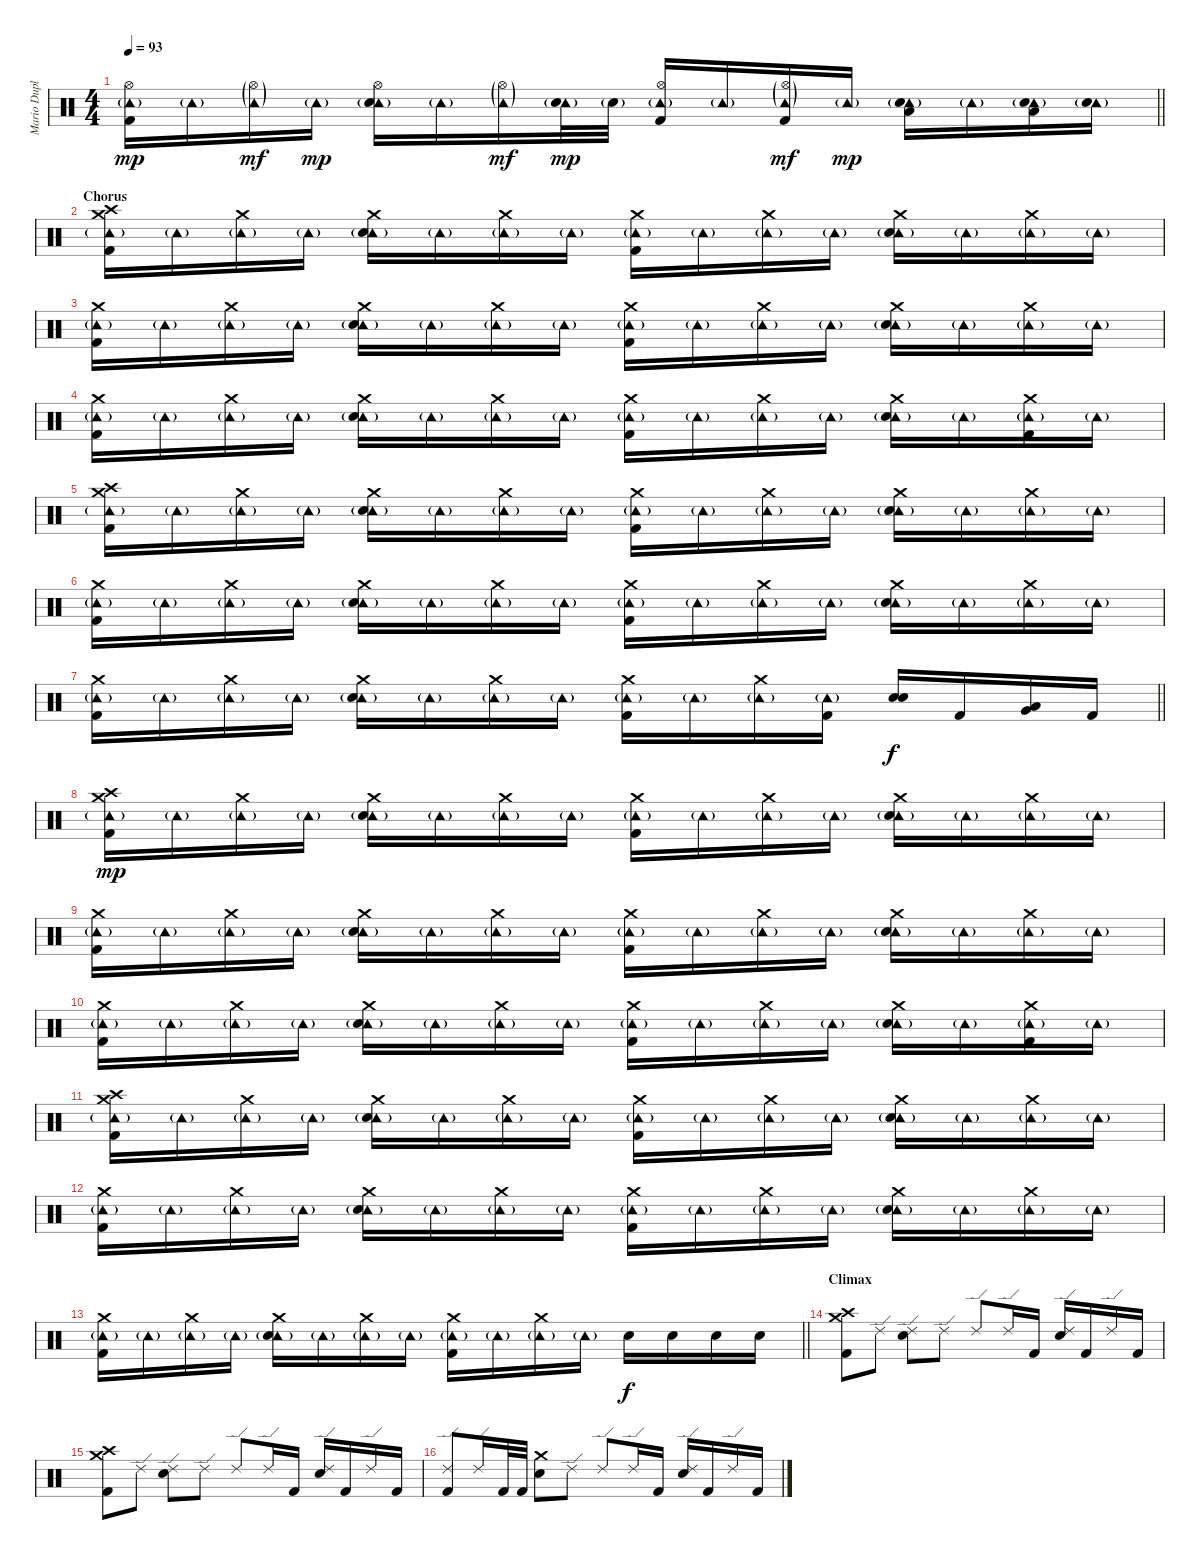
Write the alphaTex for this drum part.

\track ("Mario Duplantier" "Mario Dupl") {instrument percussion}
\staff {score}
\articulation defaults
\ts (4 4)
\tempo 93
\clef neutral
\barLineRight lightlight
\ks c
("Tambourine (hit)"{g} "Hi-Hat (open)" "Kick (hit) 2").16{dy mp} "Tambourine (hit)"{g}.16 ("Tambourine (hit)"{g} "Hi-Hat (open)"{g}).16{dy mf} "Tambourine (hit)"{g}.16{dy mp} ("Tambourine (hit)"{g} "Hi-Hat (open)" "Electric Snare (hit)").16 "Tambourine (hit)"{g}.16 ("Tambourine (hit)"{g} "Hi-Hat (open)"{g}).16{dy mf} ("Tambourine (hit)"{g} "Electric Snare (hit)"{g}).32{dy mp} "Electric Snare (hit)"{g}.32 ("Tambourine (hit)"{g} "Hi-Hat (open)" "Kick (hit) 2").16 "Tambourine (hit)"{g}.16 ("Tambourine (hit)"{g} "Hi-Hat (open)"{g} "Kick (hit) 2").16{dy mf} "Tambourine (hit)"{g}.16{dy mp} ("Tambourine (hit)"{g} "Low Floor Tom (hit)" "Electric Snare (hit)").16 "Tambourine (hit)"{g}.16 ("Tambourine (hit)"{g} "Low Floor Tom (hit)" "Electric Snare (hit)").16 ("Tambourine (hit)"{g} "Electric Snare (hit)").16 |
\section ("" "Chorus")
("Tambourine (hit)"{g} "Crash high (hit)" "Crash medium (hit)" "Kick (hit) 2").16 "Tambourine (hit)"{g}.16 ("Tambourine (hit)"{g} "Crash medium (hit)").16 "Tambourine (hit)"{g}.16 ("Tambourine (hit)"{g} "Crash medium (hit)" "Electric Snare (hit)").16 "Tambourine (hit)"{g}.16 ("Tambourine (hit)"{g} "Crash medium (hit)").16 "Tambourine (hit)"{g}.16 ("Tambourine (hit)"{g} "Crash medium (hit)" "Kick (hit) 2").16 "Tambourine (hit)"{g}.16 ("Tambourine (hit)"{g} "Crash medium (hit)").16 "Tambourine (hit)"{g}.16 ("Tambourine (hit)"{g} "Crash medium (hit)" "Electric Snare (hit)").16 "Tambourine (hit)"{g}.16 ("Tambourine (hit)"{g} "Crash medium (hit)").16 "Tambourine (hit)"{g}.16 |
("Tambourine (hit)"{g} "Crash medium (hit)" "Kick (hit) 2").16 "Tambourine (hit)"{g}.16 ("Tambourine (hit)"{g} "Crash medium (hit)").16 "Tambourine (hit)"{g}.16 ("Tambourine (hit)"{g} "Crash medium (hit)" "Electric Snare (hit)").16 "Tambourine (hit)"{g}.16 ("Tambourine (hit)"{g} "Crash medium (hit)").16 "Tambourine (hit)"{g}.16 ("Tambourine (hit)"{g} "Crash medium (hit)" "Kick (hit) 2").16 "Tambourine (hit)"{g}.16 ("Tambourine (hit)"{g} "Crash medium (hit)").16 "Tambourine (hit)"{g}.16 ("Tambourine (hit)"{g} "Crash medium (hit)" "Electric Snare (hit)").16 "Tambourine (hit)"{g}.16 ("Tambourine (hit)"{g} "Crash medium (hit)").16 "Tambourine (hit)"{g}.16 |
("Tambourine (hit)"{g} "Crash medium (hit)" "Kick (hit) 2").16 "Tambourine (hit)"{g}.16 ("Tambourine (hit)"{g} "Crash medium (hit)").16 "Tambourine (hit)"{g}.16 ("Tambourine (hit)"{g} "Crash medium (hit)" "Electric Snare (hit)").16 "Tambourine (hit)"{g}.16 ("Tambourine (hit)"{g} "Crash medium (hit)").16 "Tambourine (hit)"{g}.16 ("Tambourine (hit)"{g} "Crash medium (hit)" "Kick (hit) 2").16 "Tambourine (hit)"{g}.16 ("Tambourine (hit)"{g} "Crash medium (hit)").16 "Tambourine (hit)"{g}.16 ("Tambourine (hit)"{g} "Crash medium (hit)" "Electric Snare (hit)").16 "Tambourine (hit)"{g}.16 ("Tambourine (hit)"{g} "Crash medium (hit)" "Kick (hit) 2").16 "Tambourine (hit)"{g}.16 |
("Tambourine (hit)"{g} "Crash high (hit)" "Crash medium (hit)" "Kick (hit) 2").16 "Tambourine (hit)"{g}.16 ("Tambourine (hit)"{g} "Crash medium (hit)").16 "Tambourine (hit)"{g}.16 ("Tambourine (hit)"{g} "Crash medium (hit)" "Electric Snare (hit)").16 "Tambourine (hit)"{g}.16 ("Tambourine (hit)"{g} "Crash medium (hit)").16 "Tambourine (hit)"{g}.16 ("Tambourine (hit)"{g} "Crash medium (hit)" "Kick (hit) 2").16 "Tambourine (hit)"{g}.16 ("Tambourine (hit)"{g} "Crash medium (hit)").16 "Tambourine (hit)"{g}.16 ("Tambourine (hit)"{g} "Crash medium (hit)" "Electric Snare (hit)").16 "Tambourine (hit)"{g}.16 ("Tambourine (hit)"{g} "Crash medium (hit)").16 "Tambourine (hit)"{g}.16 |
("Tambourine (hit)"{g} "Crash medium (hit)" "Kick (hit) 2").16 "Tambourine (hit)"{g}.16 ("Tambourine (hit)"{g} "Crash medium (hit)").16 "Tambourine (hit)"{g}.16 ("Tambourine (hit)"{g} "Crash medium (hit)" "Electric Snare (hit)").16 "Tambourine (hit)"{g}.16 ("Tambourine (hit)"{g} "Crash medium (hit)").16 "Tambourine (hit)"{g}.16 ("Tambourine (hit)"{g} "Crash medium (hit)" "Kick (hit) 2").16 "Tambourine (hit)"{g}.16 ("Tambourine (hit)"{g} "Crash medium (hit)").16 "Tambourine (hit)"{g}.16 ("Tambourine (hit)"{g} "Crash medium (hit)" "Electric Snare (hit)").16 "Tambourine (hit)"{g}.16 ("Tambourine (hit)"{g} "Crash medium (hit)").16 "Tambourine (hit)"{g}.16 |
\barLineRight lightlight
("Tambourine (hit)"{g} "Crash medium (hit)" "Kick (hit) 2").16 "Tambourine (hit)"{g}.16 ("Tambourine (hit)"{g} "Crash medium (hit)").16 "Tambourine (hit)"{g}.16 ("Tambourine (hit)"{g} "Crash medium (hit)" "Electric Snare (hit)").16 "Tambourine (hit)"{g}.16 ("Tambourine (hit)"{g} "Crash medium (hit)").16 "Tambourine (hit)"{g}.16 ("Tambourine (hit)"{g} "Crash medium (hit)" "Kick (hit) 2").16 "Tambourine (hit)"{g}.16 ("Tambourine (hit)"{g} "Crash medium (hit)").16 ("Tambourine (hit)"{g} "Kick (hit) 2").16 ("Electric Snare (hit)" "Electric Snare (hit)").16{bu 60 dy f} "Kick (hit) 2".16 ("Very Low Tom (hit)" "Low Floor Tom (hit)").16{bu 60} "Kick (hit) 2".16 |
("Tambourine (hit)"{g} "Crash high (hit)" "Crash medium (hit)" "Kick (hit) 2").16{dy mp} "Tambourine (hit)"{g}.16 ("Tambourine (hit)"{g} "Crash medium (hit)").16 "Tambourine (hit)"{g}.16 ("Tambourine (hit)"{g} "Crash medium (hit)" "Electric Snare (hit)").16 "Tambourine (hit)"{g}.16 ("Tambourine (hit)"{g} "Crash medium (hit)").16 "Tambourine (hit)"{g}.16 ("Tambourine (hit)"{g} "Crash medium (hit)" "Kick (hit) 2").16 "Tambourine (hit)"{g}.16 ("Tambourine (hit)"{g} "Crash medium (hit)").16 "Tambourine (hit)"{g}.16 ("Tambourine (hit)"{g} "Crash medium (hit)" "Electric Snare (hit)").16 "Tambourine (hit)"{g}.16 ("Tambourine (hit)"{g} "Crash medium (hit)").16 "Tambourine (hit)"{g}.16 |
("Tambourine (hit)"{g} "Crash medium (hit)" "Kick (hit) 2").16 "Tambourine (hit)"{g}.16 ("Tambourine (hit)"{g} "Crash medium (hit)").16 "Tambourine (hit)"{g}.16 ("Tambourine (hit)"{g} "Crash medium (hit)" "Electric Snare (hit)").16 "Tambourine (hit)"{g}.16 ("Tambourine (hit)"{g} "Crash medium (hit)").16 "Tambourine (hit)"{g}.16 ("Tambourine (hit)"{g} "Crash medium (hit)" "Kick (hit) 2").16 "Tambourine (hit)"{g}.16 ("Tambourine (hit)"{g} "Crash medium (hit)").16 "Tambourine (hit)"{g}.16 ("Tambourine (hit)"{g} "Crash medium (hit)" "Electric Snare (hit)").16 "Tambourine (hit)"{g}.16 ("Tambourine (hit)"{g} "Crash medium (hit)").16 "Tambourine (hit)"{g}.16 |
("Tambourine (hit)"{g} "Crash medium (hit)" "Kick (hit) 2").16 "Tambourine (hit)"{g}.16 ("Tambourine (hit)"{g} "Crash medium (hit)").16 "Tambourine (hit)"{g}.16 ("Tambourine (hit)"{g} "Crash medium (hit)" "Electric Snare (hit)").16 "Tambourine (hit)"{g}.16 ("Tambourine (hit)"{g} "Crash medium (hit)").16 "Tambourine (hit)"{g}.16 ("Tambourine (hit)"{g} "Crash medium (hit)" "Kick (hit) 2").16 "Tambourine (hit)"{g}.16 ("Tambourine (hit)"{g} "Crash medium (hit)").16 "Tambourine (hit)"{g}.16 ("Tambourine (hit)"{g} "Crash medium (hit)" "Electric Snare (hit)").16 "Tambourine (hit)"{g}.16 ("Tambourine (hit)"{g} "Crash medium (hit)" "Kick (hit) 2").16 "Tambourine (hit)"{g}.16 |
("Tambourine (hit)"{g} "Crash high (hit)" "Crash medium (hit)" "Kick (hit) 2").16 "Tambourine (hit)"{g}.16 ("Tambourine (hit)"{g} "Crash medium (hit)").16 "Tambourine (hit)"{g}.16 ("Tambourine (hit)"{g} "Crash medium (hit)" "Electric Snare (hit)").16 "Tambourine (hit)"{g}.16 ("Tambourine (hit)"{g} "Crash medium (hit)").16 "Tambourine (hit)"{g}.16 ("Tambourine (hit)"{g} "Crash medium (hit)" "Kick (hit) 2").16 "Tambourine (hit)"{g}.16 ("Tambourine (hit)"{g} "Crash medium (hit)").16 "Tambourine (hit)"{g}.16 ("Tambourine (hit)"{g} "Crash medium (hit)" "Electric Snare (hit)").16 "Tambourine (hit)"{g}.16 ("Tambourine (hit)"{g} "Crash medium (hit)").16 "Tambourine (hit)"{g}.16 |
("Tambourine (hit)"{g} "Crash medium (hit)" "Kick (hit) 2").16 "Tambourine (hit)"{g}.16 ("Tambourine (hit)"{g} "Crash medium (hit)").16 "Tambourine (hit)"{g}.16 ("Tambourine (hit)"{g} "Crash medium (hit)" "Electric Snare (hit)").16 "Tambourine (hit)"{g}.16 ("Tambourine (hit)"{g} "Crash medium (hit)").16 "Tambourine (hit)"{g}.16 ("Tambourine (hit)"{g} "Crash medium (hit)" "Kick (hit) 2").16 "Tambourine (hit)"{g}.16 ("Tambourine (hit)"{g} "Crash medium (hit)").16 "Tambourine (hit)"{g}.16 ("Tambourine (hit)"{g} "Crash medium (hit)" "Electric Snare (hit)").16 "Tambourine (hit)"{g}.16 ("Tambourine (hit)"{g} "Crash medium (hit)").16 "Tambourine (hit)"{g}.16 |
\barLineRight lightlight
("Tambourine (hit)"{g} "Crash medium (hit)" "Kick (hit) 2").16 "Tambourine (hit)"{g}.16 ("Tambourine (hit)"{g} "Crash medium (hit)").16 "Tambourine (hit)"{g}.16 ("Tambourine (hit)"{g} "Crash medium (hit)" "Electric Snare (hit)").16 "Tambourine (hit)"{g}.16 ("Tambourine (hit)"{g} "Crash medium (hit)").16 "Tambourine (hit)"{g}.16 ("Tambourine (hit)"{g} "Crash medium (hit)" "Kick (hit) 2").16 "Tambourine (hit)"{g}.16 ("Tambourine (hit)"{g} "Crash medium (hit)").16 "Tambourine (hit)"{g}.16 "Electric Snare (hit)".16{dy f} "Electric Snare (hit)".16 "Electric Snare (hit)".16 "Electric Snare (hit)".16 |
\section ("" "Climax")
("Crash high (hit)" "Crash medium (hit)" "Kick (hit) 2").8 "Ride (edge) 2".8 ("Ride (edge) 2" "Electric Snare (hit)").8 "Ride (edge) 2".8 "Ride (edge) 2".8 "Ride (edge) 2".16 "Kick (hit) 2".16 ("Ride (edge) 2" "Electric Snare (hit)").16 "Kick (hit) 2".16 "Ride (edge) 2".16 "Kick (hit) 2".16 |
("Crash high (hit)" "Crash medium (hit)" "Kick (hit) 2").8 "Ride (edge) 2".8 ("Ride (edge) 2" "Electric Snare (hit)").8 "Ride (edge) 2".8 "Ride (edge) 2".8 "Ride (edge) 2".16 "Kick (hit) 2".16 ("Ride (edge) 2" "Electric Snare (hit)").16 "Kick (hit) 2".16 "Ride (edge) 2".16 "Kick (hit) 2".16 |
("Ride (edge) 2" "Kick (hit) 2").8 "Ride (edge) 2".16 "Kick (hit) 2".32 "Kick (hit) 2".32 ("Crash medium (hit)" "Electric Snare (hit)").8 "Ride (edge) 2".8 "Ride (edge) 2".8 "Ride (edge) 2".16 "Kick (hit) 2".16 ("Ride (edge) 2" "Electric Snare (hit)").16 "Kick (hit) 2".16 "Ride (edge) 2".16 "Kick (hit) 2".16
